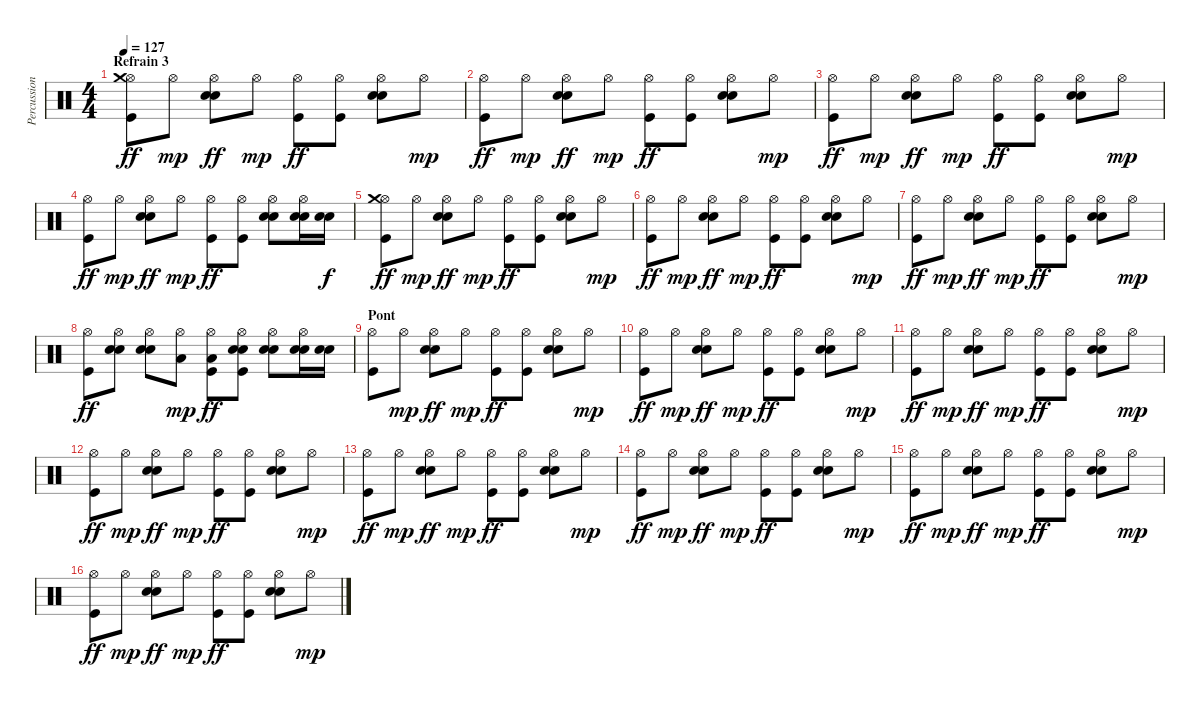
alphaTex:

\track ("Percussions" "Percussion") {instrument percussion}
\staff {score}
\articulation defaults
\ts (4 4)
\section ("" "Refrain 3")
\tempo 127
\clef neutral
\ks c
("Hi-Hat (open)" "Crash medium (hit)" "Kick (hit)").8{dy ff} "Hi-Hat (open)".8{dy mp} ("Hi-Hat (open)" "Snare (hit) 2" "Electric Snare (hit)").8{dy ff} "Hi-Hat (open)".8{dy mp} ("Hi-Hat (open)" "Kick (hit)").8{dy ff} ("Hi-Hat (open)" "Kick (hit)").8 ("Hi-Hat (open)" "Snare (hit) 2" "Electric Snare (hit)").8 "Hi-Hat (open)".8{dy mp} |
("Hi-Hat (open)" "Kick (hit)").8{dy ff} "Hi-Hat (open)".8{dy mp} ("Hi-Hat (open)" "Snare (hit) 2" "Electric Snare (hit)").8{dy ff} "Hi-Hat (open)".8{dy mp} ("Hi-Hat (open)" "Kick (hit)").8{dy ff} ("Hi-Hat (open)" "Kick (hit)").8 ("Hi-Hat (open)" "Snare (hit) 2" "Electric Snare (hit)").8 "Hi-Hat (open)".8{dy mp} |
("Hi-Hat (open)" "Kick (hit)").8{dy ff} "Hi-Hat (open)".8{dy mp} ("Hi-Hat (open)" "Snare (hit) 2" "Electric Snare (hit)").8{dy ff} "Hi-Hat (open)".8{dy mp} ("Hi-Hat (open)" "Kick (hit)").8{dy ff} ("Hi-Hat (open)" "Kick (hit)").8 ("Hi-Hat (open)" "Snare (hit) 2" "Electric Snare (hit)").8 "Hi-Hat (open)".8{dy mp} |
("Hi-Hat (open)" "Kick (hit)").8{dy ff} "Hi-Hat (open)".8{dy mp} ("Hi-Hat (open)" "Snare (hit) 2" "Electric Snare (hit)").8{dy ff} "Hi-Hat (open)".8{dy mp} ("Hi-Hat (open)" "Kick (hit)").8{dy ff} ("Hi-Hat (open)" "Kick (hit)").8 ("Hi-Hat (open)" "Snare (hit) 2" "Electric Snare (hit)").8 ("Hi-Hat (open)" "Snare (hit) 2" "Electric Snare (hit)").16 ("Snare (hit) 2" "Electric Snare (hit)").16{dy f} |
("Hi-Hat (open)" "Crash medium (hit)" "Kick (hit)").8{dy ff} "Hi-Hat (open)".8{dy mp} ("Hi-Hat (open)" "Snare (hit) 2" "Electric Snare (hit)").8{dy ff} "Hi-Hat (open)".8{dy mp} ("Hi-Hat (open)" "Kick (hit)").8{dy ff} ("Hi-Hat (open)" "Kick (hit)").8 ("Hi-Hat (open)" "Snare (hit) 2" "Electric Snare (hit)").8 "Hi-Hat (open)".8{dy mp} |
("Hi-Hat (open)" "Kick (hit)").8{dy ff} "Hi-Hat (open)".8{dy mp} ("Hi-Hat (open)" "Snare (hit) 2" "Electric Snare (hit)").8{dy ff} "Hi-Hat (open)".8{dy mp} ("Hi-Hat (open)" "Kick (hit)").8{dy ff} ("Hi-Hat (open)" "Kick (hit)").8 ("Hi-Hat (open)" "Snare (hit) 2" "Electric Snare (hit)").8 "Hi-Hat (open)".8{dy mp} |
("Hi-Hat (open)" "Kick (hit)").8{dy ff} "Hi-Hat (open)".8{dy mp} ("Hi-Hat (open)" "Snare (hit) 2" "Electric Snare (hit)").8{dy ff} "Hi-Hat (open)".8{dy mp} ("Hi-Hat (open)" "Kick (hit)").8{dy ff} ("Hi-Hat (open)" "Kick (hit)").8 ("Hi-Hat (open)" "Snare (hit) 2" "Electric Snare (hit)").8 "Hi-Hat (open)".8{dy mp} |
("Hi-Hat (open)" "Kick (hit)").8{dy ff} ("Hi-Hat (open)" "Snare (hit) 2" "Electric Snare (hit)").8 ("Hi-Hat (open)" "Snare (hit) 2" "Electric Snare (hit)").8 ("Hi-Hat (open)" "Low Floor Tom (hit)").8{dy mp} ("Hi-Hat (open)" "Low Floor Tom (hit)" "Kick (hit)").8{dy ff} ("Hi-Hat (open)" "Snare (hit) 2" "Electric Snare (hit)" "Kick (hit)").8 ("Hi-Hat (open)" "Snare (hit) 2" "Electric Snare (hit)").8 ("Hi-Hat (open)" "Snare (hit) 2" "Electric Snare (hit)").16 ("Snare (hit) 2" "Electric Snare (hit)").16 |
\section ("" "Pont")
("Hi-Hat (open)" "Kick (hit)").8 "Hi-Hat (open)".8{dy mp} ("Hi-Hat (open)" "Snare (hit) 2" "Electric Snare (hit)").8{dy ff} "Hi-Hat (open)".8{dy mp} ("Hi-Hat (open)" "Kick (hit)").8{dy ff} ("Hi-Hat (open)" "Kick (hit)").8 ("Hi-Hat (open)" "Snare (hit) 2" "Electric Snare (hit)").8 "Hi-Hat (open)".8{dy mp} |
("Hi-Hat (open)" "Kick (hit)").8{dy ff} "Hi-Hat (open)".8{dy mp} ("Hi-Hat (open)" "Snare (hit) 2" "Electric Snare (hit)").8{dy ff} "Hi-Hat (open)".8{dy mp} ("Hi-Hat (open)" "Kick (hit)").8{dy ff} ("Hi-Hat (open)" "Kick (hit)").8 ("Hi-Hat (open)" "Snare (hit) 2" "Electric Snare (hit)").8 "Hi-Hat (open)".8{dy mp} |
("Hi-Hat (open)" "Kick (hit)").8{dy ff} "Hi-Hat (open)".8{dy mp} ("Hi-Hat (open)" "Snare (hit) 2" "Electric Snare (hit)").8{dy ff} "Hi-Hat (open)".8{dy mp} ("Hi-Hat (open)" "Kick (hit)").8{dy ff} ("Hi-Hat (open)" "Kick (hit)").8 ("Hi-Hat (open)" "Snare (hit) 2" "Electric Snare (hit)").8 "Hi-Hat (open)".8{dy mp} |
("Hi-Hat (open)" "Kick (hit)").8{dy ff} "Hi-Hat (open)".8{dy mp} ("Hi-Hat (open)" "Snare (hit) 2" "Electric Snare (hit)").8{dy ff} "Hi-Hat (open)".8{dy mp} ("Hi-Hat (open)" "Kick (hit)").8{dy ff} ("Hi-Hat (open)" "Kick (hit)").8 ("Hi-Hat (open)" "Snare (hit) 2" "Electric Snare (hit)").8 "Hi-Hat (open)".8{dy mp} |
("Hi-Hat (open)" "Kick (hit)").8{dy ff} "Hi-Hat (open)".8{dy mp} ("Hi-Hat (open)" "Snare (hit) 2" "Electric Snare (hit)").8{dy ff} "Hi-Hat (open)".8{dy mp} ("Hi-Hat (open)" "Kick (hit)").8{dy ff} ("Hi-Hat (open)" "Kick (hit)").8 ("Hi-Hat (open)" "Snare (hit) 2" "Electric Snare (hit)").8 "Hi-Hat (open)".8{dy mp} |
("Hi-Hat (open)" "Kick (hit)").8{dy ff} "Hi-Hat (open)".8{dy mp} ("Hi-Hat (open)" "Snare (hit) 2" "Electric Snare (hit)").8{dy ff} "Hi-Hat (open)".8{dy mp} ("Hi-Hat (open)" "Kick (hit)").8{dy ff} ("Hi-Hat (open)" "Kick (hit)").8 ("Hi-Hat (open)" "Snare (hit) 2" "Electric Snare (hit)").8 "Hi-Hat (open)".8{dy mp} |
("Hi-Hat (open)" "Kick (hit)").8{dy ff} "Hi-Hat (open)".8{dy mp} ("Hi-Hat (open)" "Snare (hit) 2" "Electric Snare (hit)").8{dy ff} "Hi-Hat (open)".8{dy mp} ("Hi-Hat (open)" "Kick (hit)").8{dy ff} ("Hi-Hat (open)" "Kick (hit)").8 ("Hi-Hat (open)" "Snare (hit) 2" "Electric Snare (hit)").8 "Hi-Hat (open)".8{dy mp} |
("Hi-Hat (open)" "Kick (hit)").8{dy ff} "Hi-Hat (open)".8{dy mp} ("Hi-Hat (open)" "Snare (hit) 2" "Electric Snare (hit)").8{dy ff} "Hi-Hat (open)".8{dy mp} ("Hi-Hat (open)" "Kick (hit)").8{dy ff} ("Hi-Hat (open)" "Kick (hit)").8 ("Hi-Hat (open)" "Snare (hit) 2" "Electric Snare (hit)").8 "Hi-Hat (open)".8{dy mp}
